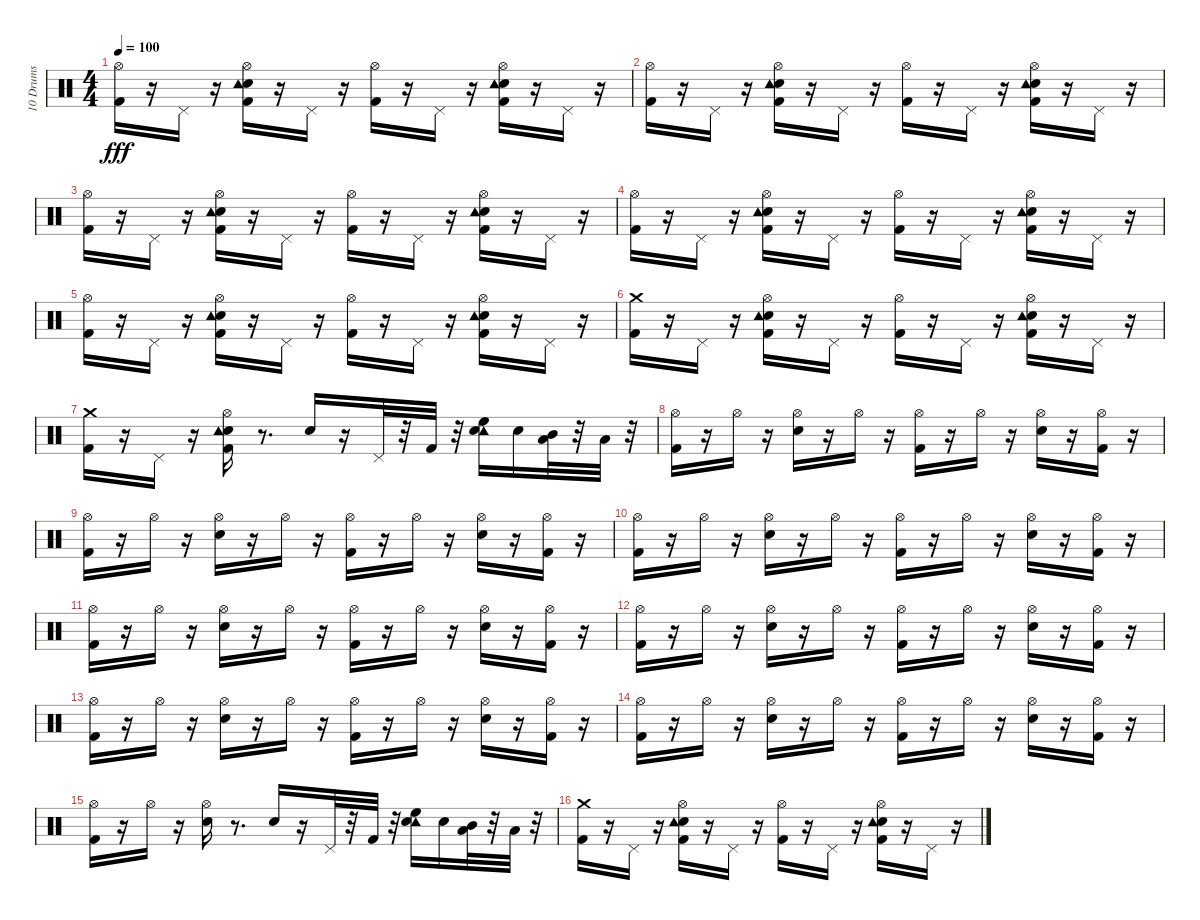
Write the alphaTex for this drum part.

\track ("10 Drums" "10 Drums") {instrument percussion}
\staff {score}
\articulation defaults
\ts (4 4)
\tempo 100
\clef neutral
\ks c
("Hi-Hat (open)" "Kick (hit) 2").16{dy fff} r.16 "Pedal Hi-Hat (hit)".16 r.16 ("Hi-Hat (open)" "Electric Snare (hit)" "Kick (hit) 2" "Tambourine (hit)").16 r.16 "Pedal Hi-Hat (hit)".16 r.16 ("Hi-Hat (open)" "Kick (hit) 2").16 r.16 "Pedal Hi-Hat (hit)".16 r.16 ("Hi-Hat (open)" "Kick (hit) 2" "Electric Snare (hit)" "Tambourine (hit)").16 r.16 "Pedal Hi-Hat (hit)".16 r.16 |
("Hi-Hat (open)" "Kick (hit) 2").16 r.16 "Pedal Hi-Hat (hit)".16 r.16 ("Hi-Hat (open)" "Electric Snare (hit)" "Kick (hit) 2" "Tambourine (hit)").16 r.16 "Pedal Hi-Hat (hit)".16 r.16 ("Hi-Hat (open)" "Kick (hit) 2").16 r.16 "Pedal Hi-Hat (hit)".16 r.16 ("Hi-Hat (open)" "Kick (hit) 2" "Electric Snare (hit)" "Tambourine (hit)").16 r.16 "Pedal Hi-Hat (hit)".16 r.16 |
("Hi-Hat (open)" "Kick (hit) 2").16 r.16 "Pedal Hi-Hat (hit)".16 r.16 ("Hi-Hat (open)" "Electric Snare (hit)" "Kick (hit) 2" "Tambourine (hit)").16 r.16 "Pedal Hi-Hat (hit)".16 r.16 ("Hi-Hat (open)" "Kick (hit) 2").16 r.16 "Pedal Hi-Hat (hit)".16 r.16 ("Hi-Hat (open)" "Kick (hit) 2" "Electric Snare (hit)" "Tambourine (hit)").16 r.16 "Pedal Hi-Hat (hit)".16 r.16 |
("Hi-Hat (open)" "Kick (hit) 2").16 r.16 "Pedal Hi-Hat (hit)".16 r.16 ("Hi-Hat (open)" "Electric Snare (hit)" "Kick (hit) 2" "Tambourine (hit)").16 r.16 "Pedal Hi-Hat (hit)".16 r.16 ("Hi-Hat (open)" "Kick (hit) 2").16 r.16 "Pedal Hi-Hat (hit)".16 r.16 ("Hi-Hat (open)" "Kick (hit) 2" "Electric Snare (hit)" "Tambourine (hit)").16 r.16 "Pedal Hi-Hat (hit)".16 r.16 |
("Hi-Hat (open)" "Kick (hit) 2").16 r.16 "Pedal Hi-Hat (hit)".16 r.16 ("Hi-Hat (open)" "Electric Snare (hit)" "Kick (hit) 2" "Tambourine (hit)").16 r.16 "Pedal Hi-Hat (hit)".16 r.16 ("Hi-Hat (open)" "Kick (hit) 2").16 r.16 "Pedal Hi-Hat (hit)".16 r.16 ("Hi-Hat (open)" "Kick (hit) 2" "Electric Snare (hit)" "Tambourine (hit)").16 r.16 "Pedal Hi-Hat (hit)".16 r.16 |
("Kick (hit) 2" "Crash medium (hit)").16 r.16 "Pedal Hi-Hat (hit)".16 r.16 ("Hi-Hat (open)" "Electric Snare (hit)" "Kick (hit) 2" "Tambourine (hit)").16 r.16 "Pedal Hi-Hat (hit)".16 r.16 ("Hi-Hat (open)" "Kick (hit) 2").16 r.16 "Pedal Hi-Hat (hit)".16 r.16 ("Hi-Hat (open)" "Kick (hit) 2" "Electric Snare (hit)" "Tambourine (hit)").16 r.16 "Pedal Hi-Hat (hit)".16 r.16 |
("Kick (hit) 2" "Crash medium (hit)").16 r.16 "Pedal Hi-Hat (hit)".16 r.16 ("Hi-Hat (open)" "Electric Snare (hit)" "Kick (hit) 2" "Tambourine (hit)").16 r.8{d} "Electric Snare (hit)".16 r.16 "Pedal Hi-Hat (hit)".32 r.32 "Kick (hit) 2".32 r.32 ("Tambourine (hit)" "Electric Snare (hit)" "High Floor Tom (hit)").16 "Electric Snare (hit)".16 ("Mid Tom (hit)" "Low Floor Tom (hit)").32 r.32 "Low Floor Tom (hit)".32 r.32 |
("Hi-Hat (open)" "Kick (hit) 2").16 r.16 "Hi-Hat (open)".16 r.16 ("Hi-Hat (open)" "Snare (hit) 2").16 r.16 "Hi-Hat (open)".16 r.16 ("Hi-Hat (open)" "Kick (hit) 2").16 r.16 "Hi-Hat (open)".16 r.16 ("Hi-Hat (open)" "Snare (hit) 2").16 r.16 ("Hi-Hat (open)" "Kick (hit) 2").16 r.16 |
("Hi-Hat (open)" "Kick (hit) 2").16 r.16 "Hi-Hat (open)".16 r.16 ("Hi-Hat (open)" "Snare (hit) 2").16 r.16 "Hi-Hat (open)".16 r.16 ("Hi-Hat (open)" "Kick (hit) 2").16 r.16 "Hi-Hat (open)".16 r.16 ("Hi-Hat (open)" "Snare (hit) 2").16 r.16 ("Hi-Hat (open)" "Kick (hit) 2").16 r.16 |
("Hi-Hat (open)" "Kick (hit) 2").16 r.16 "Hi-Hat (open)".16 r.16 ("Hi-Hat (open)" "Snare (hit) 2").16 r.16 "Hi-Hat (open)".16 r.16 ("Hi-Hat (open)" "Kick (hit) 2").16 r.16 "Hi-Hat (open)".16 r.16 ("Hi-Hat (open)" "Snare (hit) 2").16 r.16 ("Hi-Hat (open)" "Kick (hit) 2").16 r.16 |
("Hi-Hat (open)" "Kick (hit) 2").16 r.16 "Hi-Hat (open)".16 r.16 ("Hi-Hat (open)" "Snare (hit) 2").16 r.16 "Hi-Hat (open)".16 r.16 ("Hi-Hat (open)" "Kick (hit) 2").16 r.16 "Hi-Hat (open)".16 r.16 ("Hi-Hat (open)" "Snare (hit) 2").16 r.16 ("Hi-Hat (open)" "Kick (hit) 2").16 r.16 |
("Hi-Hat (open)" "Kick (hit) 2").16 r.16 "Hi-Hat (open)".16 r.16 ("Hi-Hat (open)" "Snare (hit) 2").16 r.16 "Hi-Hat (open)".16 r.16 ("Hi-Hat (open)" "Kick (hit) 2").16 r.16 "Hi-Hat (open)".16 r.16 ("Hi-Hat (open)" "Snare (hit) 2").16 r.16 ("Hi-Hat (open)" "Kick (hit) 2").16 r.16 |
("Hi-Hat (open)" "Kick (hit) 2").16 r.16 "Hi-Hat (open)".16 r.16 ("Hi-Hat (open)" "Snare (hit) 2").16 r.16 "Hi-Hat (open)".16 r.16 ("Hi-Hat (open)" "Kick (hit) 2").16 r.16 "Hi-Hat (open)".16 r.16 ("Hi-Hat (open)" "Snare (hit) 2").16 r.16 ("Hi-Hat (open)" "Kick (hit) 2").16 r.16 |
("Hi-Hat (open)" "Kick (hit) 2").16 r.16 "Hi-Hat (open)".16 r.16 ("Hi-Hat (open)" "Snare (hit) 2").16 r.16 "Hi-Hat (open)".16 r.16 ("Hi-Hat (open)" "Kick (hit) 2").16 r.16 "Hi-Hat (open)".16 r.16 ("Hi-Hat (open)" "Snare (hit) 2").16 r.16 ("Hi-Hat (open)" "Kick (hit) 2").16 r.16 |
("Hi-Hat (open)" "Kick (hit) 2").16 r.16 "Hi-Hat (open)".16 r.16 ("Hi-Hat (open)" "Snare (hit) 2").16 r.8{d} "Electric Snare (hit)".16 r.16 "Pedal Hi-Hat (hit)".32 r.32 "Kick (hit) 2".32 r.32 ("Tambourine (hit)" "Electric Snare (hit)" "High Floor Tom (hit)").16 "Electric Snare (hit)".16 ("Mid Tom (hit)" "Low Floor Tom (hit)").32 r.32 "Low Floor Tom (hit)".32 r.32 |
("Kick (hit) 2" "Crash medium (hit)").16 r.16 "Pedal Hi-Hat (hit)".16 r.16 ("Hi-Hat (open)" "Electric Snare (hit)" "Kick (hit) 2" "Tambourine (hit)").16 r.16 "Pedal Hi-Hat (hit)".16 r.16 ("Hi-Hat (open)" "Kick (hit) 2").16 r.16 "Pedal Hi-Hat (hit)".16 r.16 ("Hi-Hat (open)" "Kick (hit) 2" "Electric Snare (hit)" "Tambourine (hit)").16 r.16 "Pedal Hi-Hat (hit)".16 r.16
